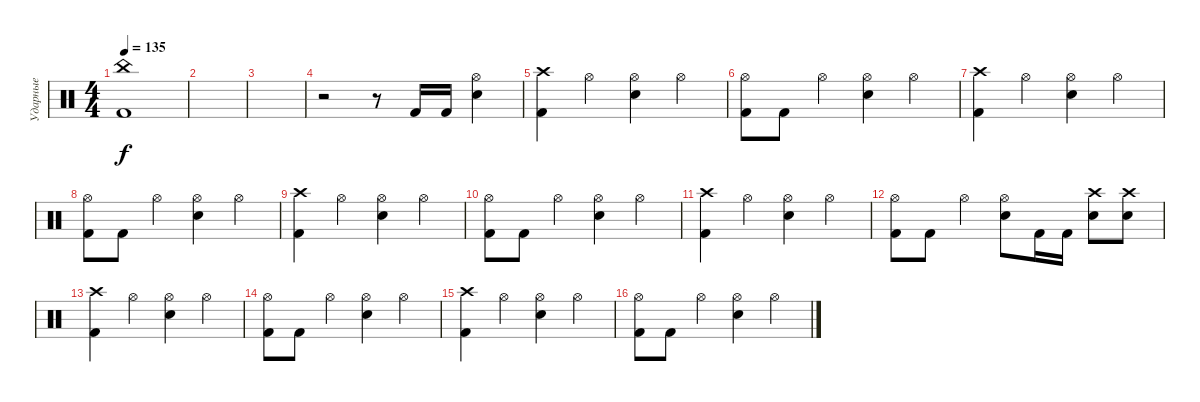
\track ("Ударные" "Ударные") {instrument percussion}
\staff {score}
\articulation defaults
\ts (4 4)
\tempo 135
\clef neutral
\ks c
("China (hit)" "Kick (hit) 2").1{dy f} |
|
|
r.2 r.8 "Kick (hit) 2".16 "Kick (hit) 2".16 ("Hi-Hat (open)" "Electric Snare (hit)").4 |
("Crash high (hit)" "Kick (hit) 2").4 "Hi-Hat (open)".4 ("Hi-Hat (open)" "Electric Snare (hit)").4 "Hi-Hat (open)".4 |
("Hi-Hat (open)" "Kick (hit) 2").8 "Kick (hit) 2".8 "Hi-Hat (open)".4 ("Hi-Hat (open)" "Electric Snare (hit)").4 "Hi-Hat (open)".4 |
("Crash high (hit)" "Kick (hit) 2").4 "Hi-Hat (open)".4 ("Hi-Hat (open)" "Electric Snare (hit)").4 "Hi-Hat (open)".4 |
("Hi-Hat (open)" "Kick (hit) 2").8 "Kick (hit) 2".8 "Hi-Hat (open)".4 ("Hi-Hat (open)" "Electric Snare (hit)").4 "Hi-Hat (open)".4 |
("Crash high (hit)" "Kick (hit) 2").4 "Hi-Hat (open)".4 ("Hi-Hat (open)" "Electric Snare (hit)").4 "Hi-Hat (open)".4 |
("Hi-Hat (open)" "Kick (hit) 2").8 "Kick (hit) 2".8 "Hi-Hat (open)".4 ("Hi-Hat (open)" "Electric Snare (hit)").4 "Hi-Hat (open)".4 |
("Crash high (hit)" "Kick (hit) 2").4 "Hi-Hat (open)".4 ("Hi-Hat (open)" "Electric Snare (hit)").4 "Hi-Hat (open)".4 |
("Hi-Hat (open)" "Kick (hit) 2").8 "Kick (hit) 2".8 "Hi-Hat (open)".4 ("Hi-Hat (open)" "Electric Snare (hit)").8 "Kick (hit) 2".16 "Kick (hit) 2".16 ("Crash high (hit)" "Electric Snare (hit)").8 ("Crash high (hit)" "Electric Snare (hit)").8 |
("Crash high (hit)" "Kick (hit) 2").4 "Hi-Hat (open)".4 ("Hi-Hat (open)" "Electric Snare (hit)").4 "Hi-Hat (open)".4 |
("Hi-Hat (open)" "Kick (hit) 2").8 "Kick (hit) 2".8 "Hi-Hat (open)".4 ("Hi-Hat (open)" "Electric Snare (hit)").4 "Hi-Hat (open)".4 |
("Crash high (hit)" "Kick (hit) 2").4 "Hi-Hat (open)".4 ("Hi-Hat (open)" "Electric Snare (hit)").4 "Hi-Hat (open)".4 |
("Hi-Hat (open)" "Kick (hit) 2").8 "Kick (hit) 2".8 "Hi-Hat (open)".4 ("Hi-Hat (open)" "Electric Snare (hit)").4 "Hi-Hat (open)".4
